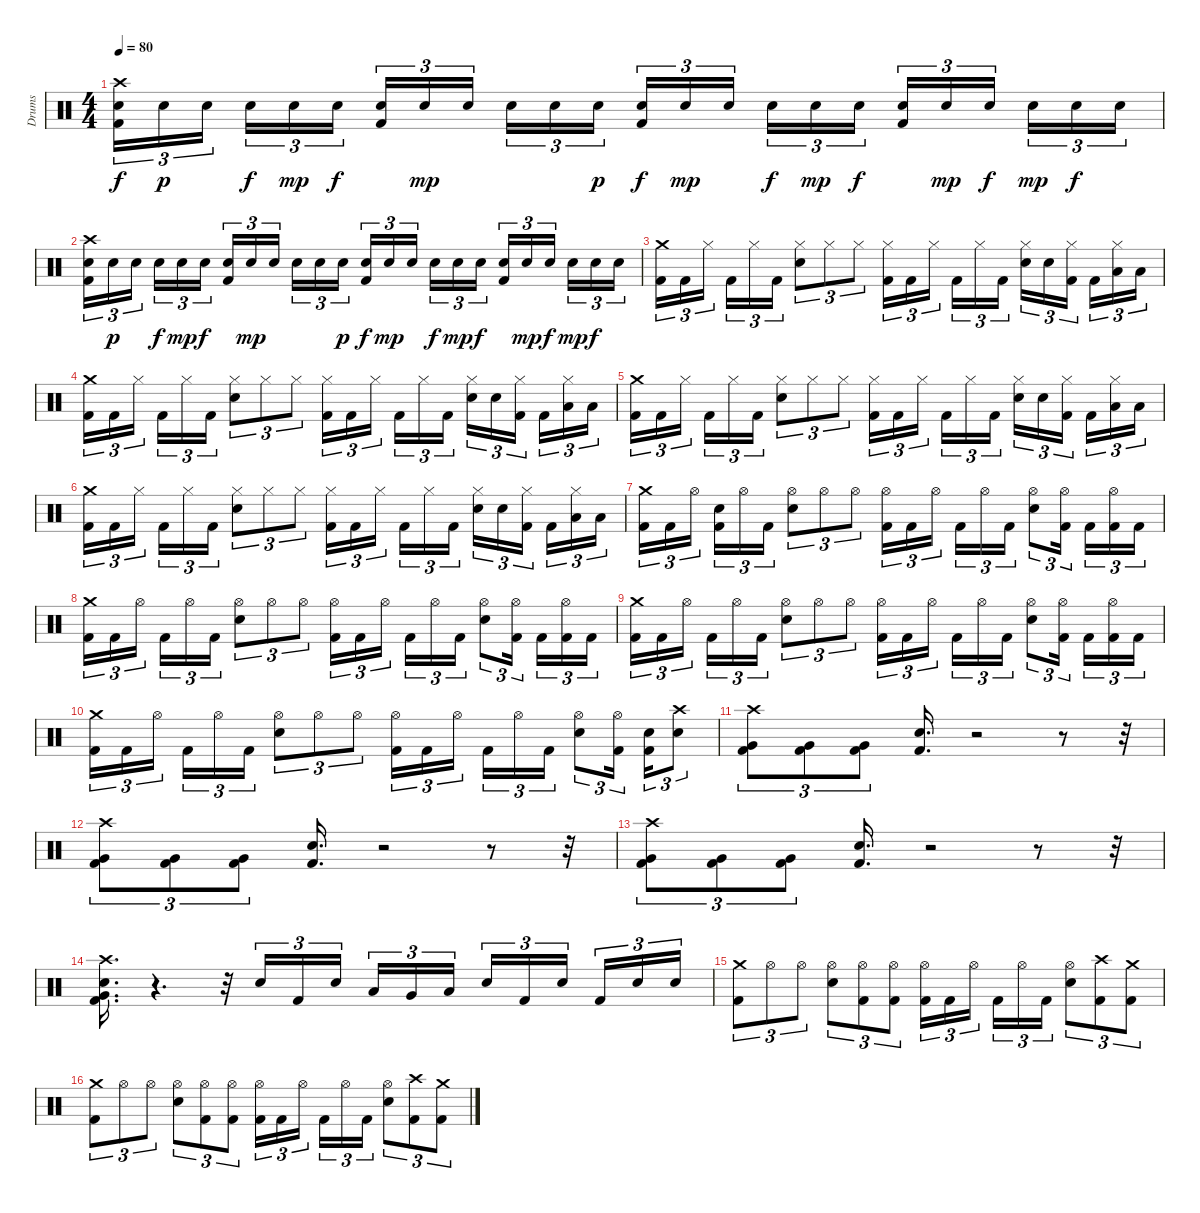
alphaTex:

\track ("Drums" "Drums") {instrument percussion}
\staff {score}
\articulation defaults
\ts (4 4)
\tempo 80
\clef neutral
\ks c
("Crash high (hit)" "Electric Snare (hit)" "Kick (hit) 2").16{tu (3 2) dy f} "Electric Snare (hit)".16{tu (3 2) dy p} "Electric Snare (hit)".16{tu (3 2)} "Electric Snare (hit)".16{tu (3 2) dy f} "Electric Snare (hit)".16{tu (3 2) dy mp} "Electric Snare (hit)".16{tu (3 2) dy f} ("Electric Snare (hit)" "Kick (hit) 2").16{tu (3 2)} "Electric Snare (hit)".16{tu (3 2) dy mp} "Electric Snare (hit)".16{tu (3 2)} "Electric Snare (hit)".16{tu (3 2)} "Electric Snare (hit)".16{tu (3 2)} "Electric Snare (hit)".16{tu (3 2) dy p} ("Electric Snare (hit)" "Kick (hit) 2").16{tu (3 2) dy f} "Electric Snare (hit)".16{tu (3 2) dy mp} "Electric Snare (hit)".16{tu (3 2)} "Electric Snare (hit)".16{tu (3 2) dy f} "Electric Snare (hit)".16{tu (3 2) dy mp} "Electric Snare (hit)".16{tu (3 2) dy f} ("Electric Snare (hit)" "Kick (hit) 2").16{tu (3 2)} "Electric Snare (hit)".16{tu (3 2) dy mp} "Electric Snare (hit)".16{tu (3 2) dy f} "Electric Snare (hit)".16{tu (3 2) dy mp} "Electric Snare (hit)".16{tu (3 2) dy f} "Electric Snare (hit)".16{tu (3 2)} |
("Crash high (hit)" "Electric Snare (hit)" "Kick (hit) 2").16{tu (3 2)} "Electric Snare (hit)".16{tu (3 2) dy p} "Electric Snare (hit)".16{tu (3 2)} "Electric Snare (hit)".16{tu (3 2) dy f} "Electric Snare (hit)".16{tu (3 2) dy mp} "Electric Snare (hit)".16{tu (3 2) dy f} ("Electric Snare (hit)" "Kick (hit) 2").16{tu (3 2)} "Electric Snare (hit)".16{tu (3 2) dy mp} "Electric Snare (hit)".16{tu (3 2)} "Electric Snare (hit)".16{tu (3 2)} "Electric Snare (hit)".16{tu (3 2)} "Electric Snare (hit)".16{tu (3 2) dy p} ("Electric Snare (hit)" "Kick (hit) 2").16{tu (3 2) dy f} "Electric Snare (hit)".16{tu (3 2) dy mp} "Electric Snare (hit)".16{tu (3 2)} "Electric Snare (hit)".16{tu (3 2) dy f} "Electric Snare (hit)".16{tu (3 2) dy mp} "Electric Snare (hit)".16{tu (3 2) dy f} ("Electric Snare (hit)" "Kick (hit) 2").16{tu (3 2)} "Electric Snare (hit)".16{tu (3 2) dy mp} "Electric Snare (hit)".16{tu (3 2) dy f} "Electric Snare (hit)".16{tu (3 2) dy mp} "Electric Snare (hit)".16{tu (3 2) dy f} "Electric Snare (hit)".16{tu (3 2)} |
("Kick (hit) 2" "Crash medium (hit)").16{tu (3 2)} "Kick (hit) 2".16{tu (3 2)} "Hi-Hat (closed)".16{tu (3 2)} "Kick (hit) 2".16{tu (3 2)} "Hi-Hat (closed)".16{tu (3 2)} "Kick (hit) 2".16{tu (3 2)} ("Electric Snare (hit)" "Hi-Hat (closed)").8{tu (3 2)} "Hi-Hat (closed)".8{tu (3 2)} "Hi-Hat (closed)".8{tu (3 2)} ("Kick (hit) 2" "Hi-Hat (closed)").16{tu (3 2)} "Kick (hit) 2".16{tu (3 2)} "Hi-Hat (closed)".16{tu (3 2)} "Kick (hit) 2".16{tu (3 2)} "Hi-Hat (closed)".16{tu (3 2)} "Kick (hit) 2".16{tu (3 2)} ("Electric Snare (hit)" "Hi-Hat (closed)").16{tu (3 2)} "Electric Snare (hit)".16{tu (3 2)} ("Kick (hit) 2" "Hi-Hat (closed)").16{tu (3 2)} "Kick (hit) 2".16{tu (3 2)} ("Low Tom (hit)" "Hi-Hat (closed)").16{tu (3 2)} "Low Tom (hit)".16{tu (3 2)} |
("Kick (hit) 2" "Crash medium (hit)").16{tu (3 2)} "Kick (hit) 2".16{tu (3 2)} "Hi-Hat (closed)".16{tu (3 2)} "Kick (hit) 2".16{tu (3 2)} "Hi-Hat (closed)".16{tu (3 2)} "Kick (hit) 2".16{tu (3 2)} ("Electric Snare (hit)" "Hi-Hat (closed)").8{tu (3 2)} "Hi-Hat (closed)".8{tu (3 2)} "Hi-Hat (closed)".8{tu (3 2)} ("Kick (hit) 2" "Hi-Hat (closed)").16{tu (3 2)} "Kick (hit) 2".16{tu (3 2)} "Hi-Hat (closed)".16{tu (3 2)} "Kick (hit) 2".16{tu (3 2)} "Hi-Hat (closed)".16{tu (3 2)} "Kick (hit) 2".16{tu (3 2)} ("Electric Snare (hit)" "Hi-Hat (closed)").16{tu (3 2)} "Electric Snare (hit)".16{tu (3 2)} ("Kick (hit) 2" "Hi-Hat (closed)").16{tu (3 2)} "Kick (hit) 2".16{tu (3 2)} ("Low Tom (hit)" "Hi-Hat (closed)").16{tu (3 2)} "Low Tom (hit)".16{tu (3 2)} |
("Kick (hit) 2" "Crash medium (hit)").16{tu (3 2)} "Kick (hit) 2".16{tu (3 2)} "Hi-Hat (closed)".16{tu (3 2)} "Kick (hit) 2".16{tu (3 2)} "Hi-Hat (closed)".16{tu (3 2)} "Kick (hit) 2".16{tu (3 2)} ("Electric Snare (hit)" "Hi-Hat (closed)").8{tu (3 2)} "Hi-Hat (closed)".8{tu (3 2)} "Hi-Hat (closed)".8{tu (3 2)} ("Kick (hit) 2" "Hi-Hat (closed)").16{tu (3 2)} "Kick (hit) 2".16{tu (3 2)} "Hi-Hat (closed)".16{tu (3 2)} "Kick (hit) 2".16{tu (3 2)} "Hi-Hat (closed)".16{tu (3 2)} "Kick (hit) 2".16{tu (3 2)} ("Electric Snare (hit)" "Hi-Hat (closed)").16{tu (3 2)} "Electric Snare (hit)".16{tu (3 2)} ("Kick (hit) 2" "Hi-Hat (closed)").16{tu (3 2)} "Kick (hit) 2".16{tu (3 2)} ("Low Tom (hit)" "Hi-Hat (closed)").16{tu (3 2)} "Low Tom (hit)".16{tu (3 2)} |
("Kick (hit) 2" "Crash medium (hit)").16{tu (3 2)} "Kick (hit) 2".16{tu (3 2)} "Hi-Hat (closed)".16{tu (3 2)} "Kick (hit) 2".16{tu (3 2)} "Hi-Hat (closed)".16{tu (3 2)} "Kick (hit) 2".16{tu (3 2)} ("Electric Snare (hit)" "Hi-Hat (closed)").8{tu (3 2)} "Hi-Hat (closed)".8{tu (3 2)} "Hi-Hat (closed)".8{tu (3 2)} ("Kick (hit) 2" "Hi-Hat (closed)").16{tu (3 2)} "Kick (hit) 2".16{tu (3 2)} "Hi-Hat (closed)".16{tu (3 2)} "Kick (hit) 2".16{tu (3 2)} "Hi-Hat (closed)".16{tu (3 2)} "Kick (hit) 2".16{tu (3 2)} ("Electric Snare (hit)" "Hi-Hat (closed)").16{tu (3 2)} "Electric Snare (hit)".16{tu (3 2)} ("Kick (hit) 2" "Hi-Hat (closed)").16{tu (3 2)} "Kick (hit) 2".16{tu (3 2)} ("Low Tom (hit)" "Hi-Hat (closed)").16{tu (3 2)} "Low Tom (hit)".16{tu (3 2)} |
("Kick (hit) 2" "Crash medium (hit)").16{tu (3 2)} "Kick (hit) 2".16{tu (3 2)} "Hi-Hat (open)".16{tu (3 2)} ("Electric Snare (hit)" "Kick (hit) 2").16{tu (3 2)} "Hi-Hat (open)".16{tu (3 2)} "Kick (hit) 2".16{tu (3 2)} ("Hi-Hat (open)" "Electric Snare (hit)").8{tu (3 2)} "Hi-Hat (open)".8{tu (3 2)} "Hi-Hat (open)".8{tu (3 2)} ("Hi-Hat (open)" "Kick (hit) 2").16{tu (3 2)} "Kick (hit) 2".16{tu (3 2)} "Hi-Hat (open)".16{tu (3 2)} "Kick (hit) 2".16{tu (3 2)} "Hi-Hat (open)".16{tu (3 2)} "Kick (hit) 2".16{tu (3 2)} ("Hi-Hat (open)" "Electric Snare (hit)").8{tu (3 2)} ("Hi-Hat (open)" "Kick (hit) 2").16{tu (3 2)} "Kick (hit) 2".16{tu (3 2)} ("Hi-Hat (open)" "Kick (hit) 2").16{tu (3 2)} "Kick (hit) 2".16{tu (3 2)} |
("Kick (hit) 2" "Crash medium (hit)").16{tu (3 2)} "Kick (hit) 2".16{tu (3 2)} "Hi-Hat (open)".16{tu (3 2)} "Kick (hit) 2".16{tu (3 2)} "Hi-Hat (open)".16{tu (3 2)} "Kick (hit) 2".16{tu (3 2)} ("Hi-Hat (open)" "Electric Snare (hit)").8{tu (3 2)} "Hi-Hat (open)".8{tu (3 2)} "Hi-Hat (open)".8{tu (3 2)} ("Hi-Hat (open)" "Kick (hit) 2").16{tu (3 2)} "Kick (hit) 2".16{tu (3 2)} "Hi-Hat (open)".16{tu (3 2)} "Kick (hit) 2".16{tu (3 2)} "Hi-Hat (open)".16{tu (3 2)} "Kick (hit) 2".16{tu (3 2)} ("Hi-Hat (open)" "Electric Snare (hit)").8{tu (3 2)} ("Hi-Hat (open)" "Kick (hit) 2").16{tu (3 2)} "Kick (hit) 2".16{tu (3 2)} ("Hi-Hat (open)" "Kick (hit) 2").16{tu (3 2)} "Kick (hit) 2".16{tu (3 2)} |
("Kick (hit) 2" "Crash medium (hit)").16{tu (3 2)} "Kick (hit) 2".16{tu (3 2)} "Hi-Hat (open)".16{tu (3 2)} "Kick (hit) 2".16{tu (3 2)} "Hi-Hat (open)".16{tu (3 2)} "Kick (hit) 2".16{tu (3 2)} ("Hi-Hat (open)" "Electric Snare (hit)").8{tu (3 2)} "Hi-Hat (open)".8{tu (3 2)} "Hi-Hat (open)".8{tu (3 2)} ("Hi-Hat (open)" "Kick (hit) 2").16{tu (3 2)} "Kick (hit) 2".16{tu (3 2)} "Hi-Hat (open)".16{tu (3 2)} "Kick (hit) 2".16{tu (3 2)} "Hi-Hat (open)".16{tu (3 2)} "Kick (hit) 2".16{tu (3 2)} ("Hi-Hat (open)" "Electric Snare (hit)").8{tu (3 2)} ("Hi-Hat (open)" "Kick (hit) 2").16{tu (3 2)} "Kick (hit) 2".16{tu (3 2)} ("Hi-Hat (open)" "Kick (hit) 2").16{tu (3 2)} "Kick (hit) 2".16{tu (3 2)} |
("Kick (hit) 2" "Crash medium (hit)").16{tu (3 2)} "Kick (hit) 2".16{tu (3 2)} "Hi-Hat (open)".16{tu (3 2)} "Kick (hit) 2".16{tu (3 2)} "Hi-Hat (open)".16{tu (3 2)} "Kick (hit) 2".16{tu (3 2)} ("Hi-Hat (open)" "Electric Snare (hit)").8{tu (3 2)} "Hi-Hat (open)".8{tu (3 2)} "Hi-Hat (open)".8{tu (3 2)} ("Hi-Hat (open)" "Kick (hit) 2").16{tu (3 2)} "Kick (hit) 2".16{tu (3 2)} "Hi-Hat (open)".16{tu (3 2)} "Kick (hit) 2".16{tu (3 2)} "Hi-Hat (open)".16{tu (3 2)} "Kick (hit) 2".16{tu (3 2)} ("Hi-Hat (open)" "Electric Snare (hit)").8{tu (3 2)} ("Hi-Hat (open)" "Kick (hit) 2").16{tu (3 2)} ("Electric Snare (hit)" "Kick (hit) 2").16{tu (3 2)} ("Crash high (hit)" "Electric Snare (hit)").8{tu (3 2)} |
("Crash high (hit)" "Very Low Tom (hit)" "Kick (hit) 2").8{tu (3 2)} ("Very Low Tom (hit)" "Kick (hit) 2").8{tu (3 2)} ("Very Low Tom (hit)" "Kick (hit) 2").8{tu (3 2)} ("Electric Snare (hit)" "Kick (hit) 2").16{d} r.2 r.8 r.32 |
("Crash high (hit)" "Very Low Tom (hit)" "Kick (hit) 2").8{tu (3 2)} ("Very Low Tom (hit)" "Kick (hit) 2").8{tu (3 2)} ("Very Low Tom (hit)" "Kick (hit) 2").8{tu (3 2)} ("Electric Snare (hit)" "Kick (hit) 2").16{d} r.2 r.8 r.32 |
("Crash high (hit)" "Very Low Tom (hit)" "Kick (hit) 2").8{tu (3 2)} ("Very Low Tom (hit)" "Kick (hit) 2").8{tu (3 2)} ("Very Low Tom (hit)" "Kick (hit) 2").8{tu (3 2)} ("Electric Snare (hit)" "Kick (hit) 2").16{d} r.2 r.8 r.32 |
("Very Low Tom (hit)" "Kick (hit) 2" "Electric Snare (hit)" "Crash high (hit)").16{d} r.4{d} r.32 "Electric Snare (hit)".16{tu (3 2)} "Kick (hit) 2".16{tu (3 2)} "Electric Snare (hit)".16{tu (3 2)} "Low Tom (hit)".16{tu (3 2)} "Very Low Tom (hit)".16{tu (3 2)} "Low Floor Tom (hit)".16{tu (3 2)} "Electric Snare (hit)".16{tu (3 2)} "Kick (hit) 2".16{tu (3 2)} "Electric Snare (hit)".16{tu (3 2)} "Kick (hit) 2".16{tu (3 2)} "Electric Snare (hit)".16{tu (3 2)} "Electric Snare (hit)".16{tu (3 2)} |
("Kick (hit) 2" "Crash medium (hit)").8{tu (3 2)} "Hi-Hat (open)".8{tu (3 2)} "Hi-Hat (open)".8{tu (3 2)} ("Electric Snare (hit)" "Hi-Hat (open)").8{tu (3 2)} ("Kick (hit) 2" "Hi-Hat (open)").8{tu (3 2)} ("Kick (hit) 2" "Hi-Hat (open)").8{tu (3 2)} ("Kick (hit) 2" "Hi-Hat (open)").16{tu (3 2)} "Kick (hit) 2".16{tu (3 2)} "Hi-Hat (open)".16{tu (3 2)} "Kick (hit) 2".16{tu (3 2)} "Hi-Hat (open)".16{tu (3 2)} "Kick (hit) 2".16{tu (3 2)} ("Electric Snare (hit)" "Hi-Hat (open)").8{tu (3 2)} ("Kick (hit) 2" "Crash high (hit)").8{tu (3 2)} ("Kick (hit) 2" "Crash medium (hit)").8{tu (3 2)} |
("Kick (hit) 2" "Crash medium (hit)").8{tu (3 2)} "Hi-Hat (open)".8{tu (3 2)} "Hi-Hat (open)".8{tu (3 2)} ("Electric Snare (hit)" "Hi-Hat (open)").8{tu (3 2)} ("Kick (hit) 2" "Hi-Hat (open)").8{tu (3 2)} ("Kick (hit) 2" "Hi-Hat (open)").8{tu (3 2)} ("Kick (hit) 2" "Hi-Hat (open)").16{tu (3 2)} "Kick (hit) 2".16{tu (3 2)} "Hi-Hat (open)".16{tu (3 2)} "Kick (hit) 2".16{tu (3 2)} "Hi-Hat (open)".16{tu (3 2)} "Kick (hit) 2".16{tu (3 2)} ("Electric Snare (hit)" "Hi-Hat (open)").8{tu (3 2)} ("Kick (hit) 2" "Crash high (hit)").8{tu (3 2)} ("Kick (hit) 2" "Crash medium (hit)").8{tu (3 2)}
